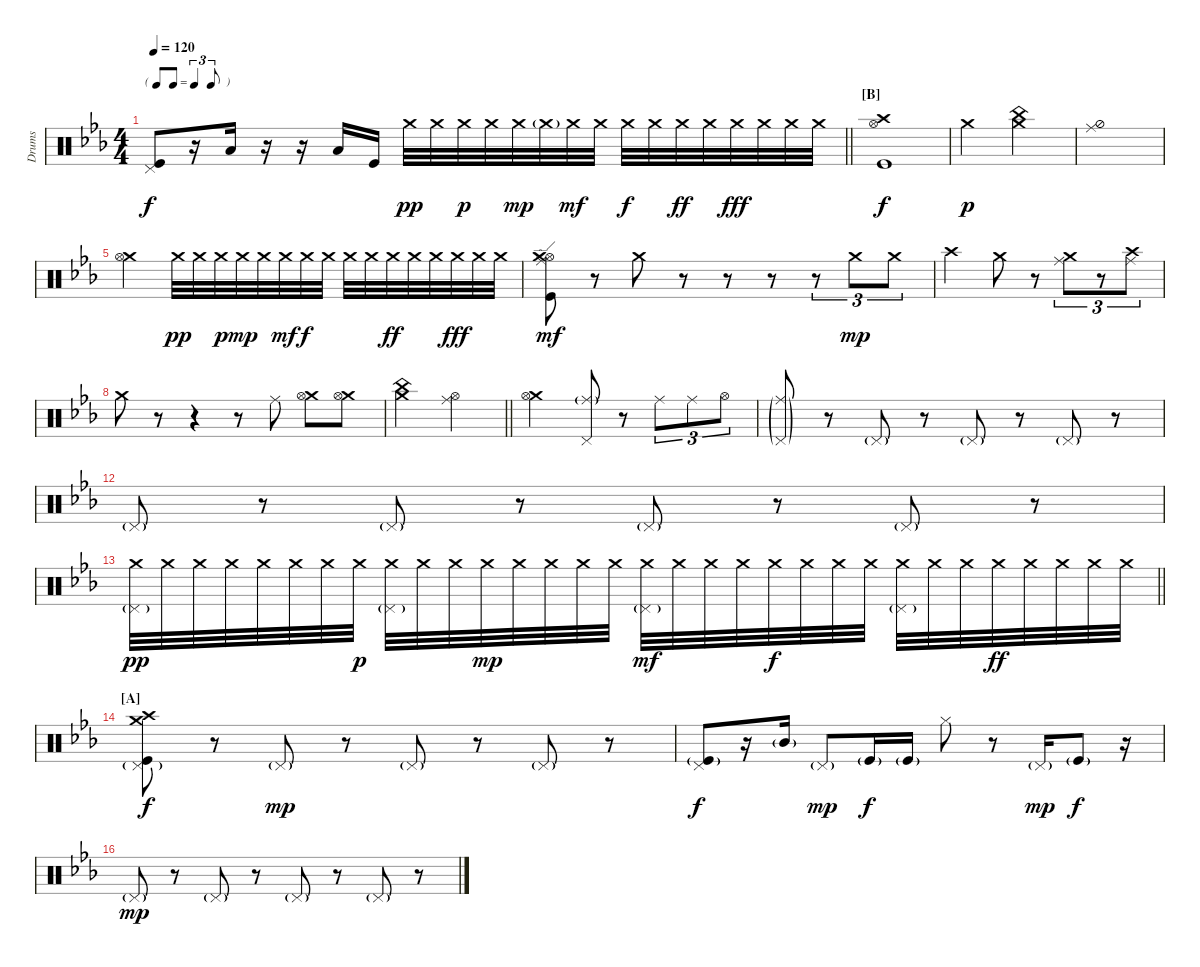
\bracketExtendMode nobrackets
\otherSystemsTrackNameOrientation horizontal
\defaultBarNumberDisplay FirstOfSystem
\track ("Drumkit" "Drums") {instrument percussion}
\staff {score}
\articulation defaults
\ts (4 4)
\tf triplet8th
\tempo 120
\clef neutral
\barLineRight lightlight
\ks cminor
("Pedal Hi-Hat (hit)" "Kick (hit)").8{dy f} r.16 "Low Tom (hit)".16 r.16 r.16 "Low Tom (hit)".16 "Kick (hit)".16 "Crash medium (hit)".32{dy pp} "Crash medium (hit)".32 "Crash medium (hit)".32{dy p} "Crash medium (hit)".32 "Crash medium (hit)".32{dy mp} "Crash medium (hit)"{g}.32 "Crash medium (hit)".32{dy mf} "Crash medium (hit)".32 "Crash medium (hit)".32{dy f} "Crash medium (hit)".32 "Crash medium (hit)".32{dy ff} "Crash medium (hit)".32 "Crash medium (hit)".32{dy fff} "Crash medium (hit)".32 "Crash medium (hit)".32 "Crash medium (hit)".32 |
\section ("B" "")
("Crash high (hit)" "Hi-Hat (open)" "Kick (hit)").1{dy f} |
"Crash medium (hit)".2{dy p} ("China (hit)" "Crash medium (hit)").2 |
("Ride (middle)" "Hi-Hat (half)").1 |
("Crash medium (hit)" "Hi-Hat (open)").2 "Crash medium (hit)".32{dy pp} "Crash medium (hit)".32 "Crash medium (hit)".32{dy p} "Crash medium (hit)".32{dy mp} "Crash medium (hit)".32 "Crash medium (hit)".32{dy mf} "Crash medium (hit)".32{dy f} "Crash medium (hit)".32 "Crash medium (hit)".32 "Crash medium (hit)".32 "Crash medium (hit)".32{dy ff} "Crash medium (hit)".32 "Crash medium (hit)".32 "Crash medium (hit)".32{dy fff} "Crash medium (hit)".32 "Crash medium (hit)".32 |
("Ride (edge)" "Kick (hit)" "Hi-Hat (open)" "Crash medium (hit)").8{dy mf} r.8 "Crash medium (hit)".8 r.8 r.8 r.8 r.8{tu (3 2)} "Crash medium (hit)".8{tu (3 2) dy mp} "Crash medium (hit)".8{tu (3 2)} |
"Crash high (hit)".2 "Crash medium (hit)".8 r.8 ("Ride (middle)" "Crash medium (hit)").8{tu (3 2)} r.8{tu (3 2)} ("Ride (middle)" "Crash high (hit)").8{tu (3 2)} |
"Crash medium (hit)".8 r.8 r.4 r.8 "Ride (middle)".8 ("Crash medium (hit)" "Hi-Hat (open)").8 ("Crash medium (hit)" "Hi-Hat (open)").8 |
\barLineRight lightlight
("Crash medium (hit)" "China (hit)").2 ("Hi-Hat (open)" "Ride (middle)").2 |
("Crash medium (hit)" "Hi-Hat (open)").2 ("Ride (middle)"{g} "Pedal Hi-Hat (hit)").8 r.8 "Ride (middle)".8{tu (3 2)} "Ride (middle)".8{tu (3 2)} "Hi-Hat (open)".8{tu (3 2)} |
("Pedal Hi-Hat (hit)"{g} "Ride (middle)"{g}).8 r.8 "Pedal Hi-Hat (hit)"{g}.8 r.8 "Pedal Hi-Hat (hit)"{g}.8 r.8 "Pedal Hi-Hat (hit)"{g}.8 r.8 |
"Pedal Hi-Hat (hit)"{g}.8 r.8 "Pedal Hi-Hat (hit)"{g}.8 r.8 "Pedal Hi-Hat (hit)"{g}.8 r.8 "Pedal Hi-Hat (hit)"{g}.8 r.8 |
\barLineRight lightlight
("Crash medium (hit)" "Pedal Hi-Hat (hit)"{g}).32{dy pp} "Crash medium (hit)".32 "Crash medium (hit)".32 "Crash medium (hit)".32 "Crash medium (hit)".32 "Crash medium (hit)".32 "Crash medium (hit)".32 "Crash medium (hit)".32{dy p} ("Crash medium (hit)" "Pedal Hi-Hat (hit)"{g}).32 "Crash medium (hit)".32 "Crash medium (hit)".32 "Crash medium (hit)".32{dy mp} "Crash medium (hit)".32 "Crash medium (hit)".32 "Crash medium (hit)".32 "Crash medium (hit)".32 ("Crash medium (hit)" "Pedal Hi-Hat (hit)"{g}).32{dy mf} "Crash medium (hit)".32 "Crash medium (hit)".32 "Crash medium (hit)".32 "Crash medium (hit)".32{dy f} "Crash medium (hit)".32 "Crash medium (hit)".32 "Crash medium (hit)".32 ("Crash medium (hit)" "Pedal Hi-Hat (hit)"{g}).32 "Crash medium (hit)".32 "Crash medium (hit)".32 "Crash medium (hit)".32{dy ff} "Crash medium (hit)".32 "Crash medium (hit)".32 "Crash medium (hit)".32 "Crash medium (hit)".32 |
\section ("A" "")
("Pedal Hi-Hat (hit)"{g} "Crash high (hit)" "Crash medium (hit)" "Kick (hit)").8{dy f} r.8 "Pedal Hi-Hat (hit)"{g}.8{dy mp} r.8 "Pedal Hi-Hat (hit)"{g}.8 r.8 "Pedal Hi-Hat (hit)"{g}.8 r.8 |
("Pedal Hi-Hat (hit)" "Kick (hit)"{g}).8{dy f} r.16 "Mid Tom (hit)"{g}.16 "Pedal Hi-Hat (hit)"{g}.8{dy mp} "Kick (hit)"{g}.16{dy f} "Kick (hit)"{g}.16 "Hi-Hat (closed)".8 r.8 "Pedal Hi-Hat (hit)"{g}.16{dy mp} "Kick (hit)"{g}.8{dy f} r.16 |
"Pedal Hi-Hat (hit)"{g}.8{dy mp} r.8 "Pedal Hi-Hat (hit)"{g}.8 r.8 "Pedal Hi-Hat (hit)"{g}.8 r.8 "Pedal Hi-Hat (hit)"{g}.8 r.8
